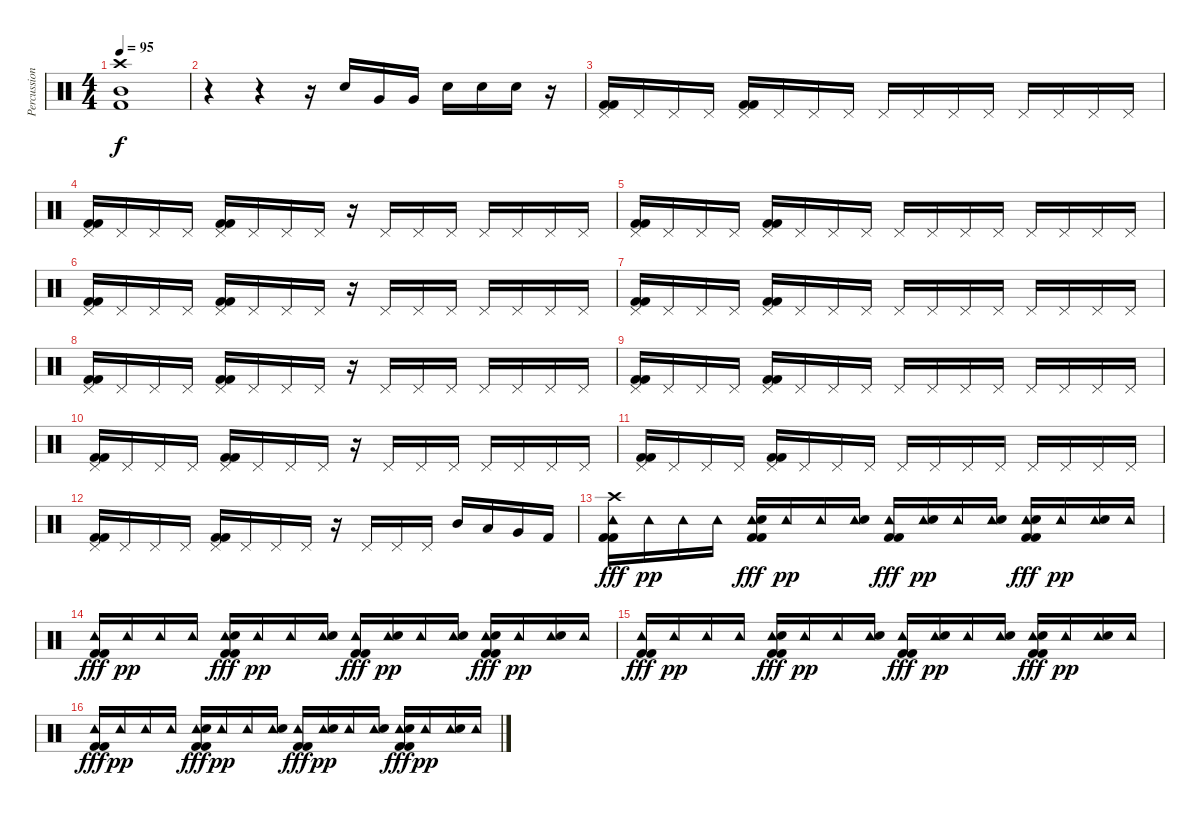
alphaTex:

\track ("Percussion" "Percussion") {instrument percussion}
\staff {score}
\articulation defaults
\ts (4 4)
\tempo 95
\clef neutral
\ks c
("Crash high (hit)" "Mid Tom (hit)" "Kick (hit) 2").1{dy f} |
r.4 r.4 r.16 "Electric Snare (hit)".16 "Very Low Tom (hit)".16 "Very Low Tom (hit)".16 "Electric Snare (hit)".16 "Electric Snare (hit)".16 "Electric Snare (hit)".16 r.16 |
("Pedal Hi-Hat (hit)" "Kick (hit) 2" "Kick (hit) 2").16 "Pedal Hi-Hat (hit)".16 "Pedal Hi-Hat (hit)".16 "Pedal Hi-Hat (hit)".16 ("Pedal Hi-Hat (hit)" "Kick (hit) 2" "Kick (hit) 2").16 "Pedal Hi-Hat (hit)".16 "Pedal Hi-Hat (hit)".16 "Pedal Hi-Hat (hit)".16 "Pedal Hi-Hat (hit)".16 "Pedal Hi-Hat (hit)".16 "Pedal Hi-Hat (hit)".16 "Pedal Hi-Hat (hit)".16 "Pedal Hi-Hat (hit)".16 "Pedal Hi-Hat (hit)".16 "Pedal Hi-Hat (hit)".16 "Pedal Hi-Hat (hit)".16 |
("Pedal Hi-Hat (hit)" "Kick (hit) 2" "Kick (hit) 2").16 "Pedal Hi-Hat (hit)".16 "Pedal Hi-Hat (hit)".16 "Pedal Hi-Hat (hit)".16 ("Pedal Hi-Hat (hit)" "Kick (hit) 2" "Kick (hit) 2").16 "Pedal Hi-Hat (hit)".16 "Pedal Hi-Hat (hit)".16 "Pedal Hi-Hat (hit)".16 r.16 "Pedal Hi-Hat (hit)".16 "Pedal Hi-Hat (hit)".16 "Pedal Hi-Hat (hit)".16 "Pedal Hi-Hat (hit)".16 "Pedal Hi-Hat (hit)".16 "Pedal Hi-Hat (hit)".16 "Pedal Hi-Hat (hit)".16 |
("Pedal Hi-Hat (hit)" "Kick (hit) 2" "Kick (hit) 2").16 "Pedal Hi-Hat (hit)".16 "Pedal Hi-Hat (hit)".16 "Pedal Hi-Hat (hit)".16 ("Pedal Hi-Hat (hit)" "Kick (hit) 2" "Kick (hit) 2").16 "Pedal Hi-Hat (hit)".16 "Pedal Hi-Hat (hit)".16 "Pedal Hi-Hat (hit)".16 "Pedal Hi-Hat (hit)".16 "Pedal Hi-Hat (hit)".16 "Pedal Hi-Hat (hit)".16 "Pedal Hi-Hat (hit)".16 "Pedal Hi-Hat (hit)".16 "Pedal Hi-Hat (hit)".16 "Pedal Hi-Hat (hit)".16 "Pedal Hi-Hat (hit)".16 |
("Pedal Hi-Hat (hit)" "Kick (hit) 2" "Kick (hit) 2").16 "Pedal Hi-Hat (hit)".16 "Pedal Hi-Hat (hit)".16 "Pedal Hi-Hat (hit)".16 ("Pedal Hi-Hat (hit)" "Kick (hit) 2" "Kick (hit) 2").16 "Pedal Hi-Hat (hit)".16 "Pedal Hi-Hat (hit)".16 "Pedal Hi-Hat (hit)".16 r.16 "Pedal Hi-Hat (hit)".16 "Pedal Hi-Hat (hit)".16 "Pedal Hi-Hat (hit)".16 "Pedal Hi-Hat (hit)".16 "Pedal Hi-Hat (hit)".16 "Pedal Hi-Hat (hit)".16 "Pedal Hi-Hat (hit)".16 |
("Pedal Hi-Hat (hit)" "Kick (hit) 2" "Kick (hit) 2").16 "Pedal Hi-Hat (hit)".16 "Pedal Hi-Hat (hit)".16 "Pedal Hi-Hat (hit)".16 ("Pedal Hi-Hat (hit)" "Kick (hit) 2" "Kick (hit) 2").16 "Pedal Hi-Hat (hit)".16 "Pedal Hi-Hat (hit)".16 "Pedal Hi-Hat (hit)".16 "Pedal Hi-Hat (hit)".16 "Pedal Hi-Hat (hit)".16 "Pedal Hi-Hat (hit)".16 "Pedal Hi-Hat (hit)".16 "Pedal Hi-Hat (hit)".16 "Pedal Hi-Hat (hit)".16 "Pedal Hi-Hat (hit)".16 "Pedal Hi-Hat (hit)".16 |
("Pedal Hi-Hat (hit)" "Kick (hit) 2" "Kick (hit) 2").16 "Pedal Hi-Hat (hit)".16 "Pedal Hi-Hat (hit)".16 "Pedal Hi-Hat (hit)".16 ("Pedal Hi-Hat (hit)" "Kick (hit) 2" "Kick (hit) 2").16 "Pedal Hi-Hat (hit)".16 "Pedal Hi-Hat (hit)".16 "Pedal Hi-Hat (hit)".16 r.16 "Pedal Hi-Hat (hit)".16 "Pedal Hi-Hat (hit)".16 "Pedal Hi-Hat (hit)".16 "Pedal Hi-Hat (hit)".16 "Pedal Hi-Hat (hit)".16 "Pedal Hi-Hat (hit)".16 "Pedal Hi-Hat (hit)".16 |
("Pedal Hi-Hat (hit)" "Kick (hit) 2" "Kick (hit) 2").16 "Pedal Hi-Hat (hit)".16 "Pedal Hi-Hat (hit)".16 "Pedal Hi-Hat (hit)".16 ("Pedal Hi-Hat (hit)" "Kick (hit) 2" "Kick (hit) 2").16 "Pedal Hi-Hat (hit)".16 "Pedal Hi-Hat (hit)".16 "Pedal Hi-Hat (hit)".16 "Pedal Hi-Hat (hit)".16 "Pedal Hi-Hat (hit)".16 "Pedal Hi-Hat (hit)".16 "Pedal Hi-Hat (hit)".16 "Pedal Hi-Hat (hit)".16 "Pedal Hi-Hat (hit)".16 "Pedal Hi-Hat (hit)".16 "Pedal Hi-Hat (hit)".16 |
("Pedal Hi-Hat (hit)" "Kick (hit) 2" "Kick (hit) 2").16 "Pedal Hi-Hat (hit)".16 "Pedal Hi-Hat (hit)".16 "Pedal Hi-Hat (hit)".16 ("Pedal Hi-Hat (hit)" "Kick (hit) 2" "Kick (hit) 2").16 "Pedal Hi-Hat (hit)".16 "Pedal Hi-Hat (hit)".16 "Pedal Hi-Hat (hit)".16 r.16 "Pedal Hi-Hat (hit)".16 "Pedal Hi-Hat (hit)".16 "Pedal Hi-Hat (hit)".16 "Pedal Hi-Hat (hit)".16 "Pedal Hi-Hat (hit)".16 "Pedal Hi-Hat (hit)".16 "Pedal Hi-Hat (hit)".16 |
("Pedal Hi-Hat (hit)" "Kick (hit) 2" "Kick (hit) 2").16 "Pedal Hi-Hat (hit)".16 "Pedal Hi-Hat (hit)".16 "Pedal Hi-Hat (hit)".16 ("Pedal Hi-Hat (hit)" "Kick (hit) 2" "Kick (hit) 2").16 "Pedal Hi-Hat (hit)".16 "Pedal Hi-Hat (hit)".16 "Pedal Hi-Hat (hit)".16 "Pedal Hi-Hat (hit)".16 "Pedal Hi-Hat (hit)".16 "Pedal Hi-Hat (hit)".16 "Pedal Hi-Hat (hit)".16 "Pedal Hi-Hat (hit)".16 "Pedal Hi-Hat (hit)".16 "Pedal Hi-Hat (hit)".16 "Pedal Hi-Hat (hit)".16 |
("Pedal Hi-Hat (hit)" "Kick (hit) 2" "Kick (hit) 2").16 "Pedal Hi-Hat (hit)".16 "Pedal Hi-Hat (hit)".16 "Pedal Hi-Hat (hit)".16 ("Pedal Hi-Hat (hit)" "Kick (hit) 2" "Kick (hit) 2").16 "Pedal Hi-Hat (hit)".16 "Pedal Hi-Hat (hit)".16 "Pedal Hi-Hat (hit)".16 r.16 "Pedal Hi-Hat (hit)".16 "Pedal Hi-Hat (hit)".16 "Pedal Hi-Hat (hit)".16 "Mid Tom (hit)".16 "Low Tom (hit)".16 "Very Low Tom (hit)".16 "Kick (hit) 2".16 |
("Tambourine (hit)" "Crash high (hit)" "Kick (hit) 2" "Kick (hit) 2").16{dy fff} "Tambourine (hit)".16{dy pp} "Tambourine (hit)".16 "Tambourine (hit)".16 ("Tambourine (hit)" "Electric Snare (hit)" "Kick (hit) 2" "Kick (hit) 2").16{dy fff} "Tambourine (hit)".16{dy pp} "Tambourine (hit)".16 ("Tambourine (hit)" "Electric Snare (hit)").16 ("Tambourine (hit)" "Kick (hit) 2" "Kick (hit) 2").16{dy fff} ("Tambourine (hit)" "Electric Snare (hit)").16{dy pp} "Tambourine (hit)".16 ("Tambourine (hit)" "Electric Snare (hit)").16 ("Tambourine (hit)" "Electric Snare (hit)" "Kick (hit) 2" "Kick (hit) 2").16{dy fff} "Tambourine (hit)".16{dy pp} ("Tambourine (hit)" "Electric Snare (hit)").16 "Tambourine (hit)".16 |
("Tambourine (hit)" "Kick (hit) 2" "Kick (hit) 2").16{dy fff} "Tambourine (hit)".16{dy pp} "Tambourine (hit)".16 "Tambourine (hit)".16 ("Tambourine (hit)" "Electric Snare (hit)" "Kick (hit) 2" "Kick (hit) 2").16{dy fff} "Tambourine (hit)".16{dy pp} "Tambourine (hit)".16 ("Tambourine (hit)" "Electric Snare (hit)").16 ("Tambourine (hit)" "Kick (hit) 2" "Kick (hit) 2").16{dy fff} ("Tambourine (hit)" "Electric Snare (hit)").16{dy pp} "Tambourine (hit)".16 ("Tambourine (hit)" "Electric Snare (hit)").16 ("Tambourine (hit)" "Electric Snare (hit)" "Kick (hit) 2" "Kick (hit) 2").16{dy fff} "Tambourine (hit)".16{dy pp} ("Tambourine (hit)" "Electric Snare (hit)").16 "Tambourine (hit)".16 |
("Tambourine (hit)" "Kick (hit) 2" "Kick (hit) 2").16{dy fff} "Tambourine (hit)".16{dy pp} "Tambourine (hit)".16 "Tambourine (hit)".16 ("Tambourine (hit)" "Electric Snare (hit)" "Kick (hit) 2" "Kick (hit) 2").16{dy fff} "Tambourine (hit)".16{dy pp} "Tambourine (hit)".16 ("Tambourine (hit)" "Electric Snare (hit)").16 ("Tambourine (hit)" "Kick (hit) 2" "Kick (hit) 2").16{dy fff} ("Tambourine (hit)" "Electric Snare (hit)").16{dy pp} "Tambourine (hit)".16 ("Tambourine (hit)" "Electric Snare (hit)").16 ("Tambourine (hit)" "Electric Snare (hit)" "Kick (hit) 2" "Kick (hit) 2").16{dy fff} "Tambourine (hit)".16{dy pp} ("Tambourine (hit)" "Electric Snare (hit)").16 "Tambourine (hit)".16 |
("Tambourine (hit)" "Kick (hit) 2" "Kick (hit) 2").16{dy fff} "Tambourine (hit)".16{dy pp} "Tambourine (hit)".16 "Tambourine (hit)".16 ("Tambourine (hit)" "Electric Snare (hit)" "Kick (hit) 2" "Kick (hit) 2").16{dy fff} "Tambourine (hit)".16{dy pp} "Tambourine (hit)".16 ("Tambourine (hit)" "Electric Snare (hit)").16 ("Tambourine (hit)" "Kick (hit) 2" "Kick (hit) 2").16{dy fff} ("Tambourine (hit)" "Electric Snare (hit)").16{dy pp} "Tambourine (hit)".16 ("Tambourine (hit)" "Electric Snare (hit)").16 ("Tambourine (hit)" "Electric Snare (hit)" "Kick (hit) 2" "Kick (hit) 2").16{dy fff} "Tambourine (hit)".16{dy pp} ("Tambourine (hit)" "Electric Snare (hit)").16 "Tambourine (hit)".16
